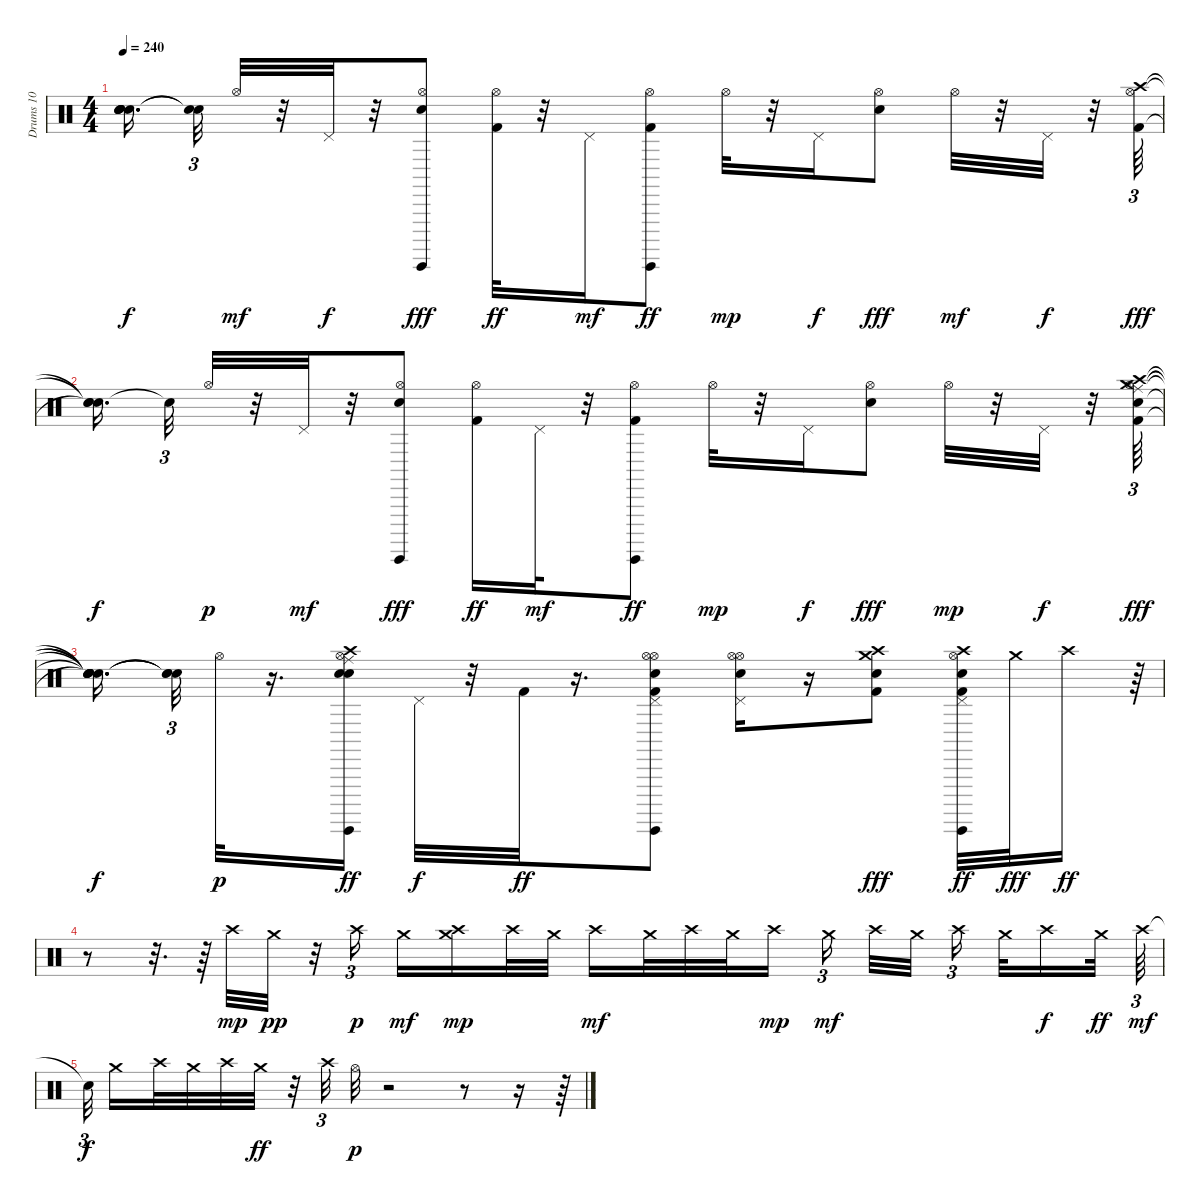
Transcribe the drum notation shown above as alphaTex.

\track ("Drums 10" "Drums 10") {instrument percussion}
\staff {score}
\articulation defaults
\ts (4 4)
\tempo 240
\clef neutral
\ks c
("Snare (hit)"{t} "Snare (hit)"{t} "Snare (hit)"{t} "Snare (hit)"{t} "Snare (hit)"{t}).16{d dy f beam splitsecondary} ("Snare (hit)"{t} "Snare (hit)"{t}).32{tu (3 2)} "Hi-Hat (open)".32{dy mf} r.32 "Pedal Hi-Hat (hit)".32{dy f} r.32 ("Hi-Hat (open)" "Guiro (hit)" "Snare (hit) 2").8{dy fff} ("Hi-Hat (open)" "Kick (hit) 2").32{dy ff} r.32 "Pedal Hi-Hat (hit)".16{dy mf} ("Hi-Hat (open)" "Guiro (hit)" "Kick (hit) 2").8{dy ff} "Hi-Hat (open)".32{dy mp} r.32 "Pedal Hi-Hat (hit)".16{dy f} ("Hi-Hat (open)" "Snare (hit) 2").8{dy fff} "Hi-Hat (open)".32{dy mf} r.32 "Pedal Hi-Hat (hit)".32{dy f} r.32 ("Hi-Hat (open)" "Kick (hit) 2" "Crash high (hit)").64{tu (3 2) dy fff} |
("Snare (hit)"{t} "Snare (hit)"{t} "Snare (hit)"{t}).16{d dy f beam splitsecondary} "Snare (hit)"{t}.32{tu (3 2)} "Hi-Hat (open)".32{dy p} r.32 "Pedal Hi-Hat (hit)".32{dy mf} r.32 ("Hi-Hat (open)" "Guiro (hit)" "Snare (hit) 2").8{dy fff} ("Hi-Hat (open)" "Kick (hit) 2").16{dy ff} "Pedal Hi-Hat (hit)".32{dy mf} r.32 ("Hi-Hat (open)" "Guiro (hit)" "Kick (hit) 2").8{dy ff} "Hi-Hat (open)".32{dy mp} r.32 "Pedal Hi-Hat (hit)".16{dy f} ("Hi-Hat (open)" "Snare (hit) 2").8{dy fff} "Hi-Hat (open)".32{dy mp} r.32 "Pedal Hi-Hat (hit)".32{dy f} r.32 ("Hi-Hat (open)" "Kick (hit) 2" "Electric Snare (hit)" "Ride (middle)" "Crash high (hit)" "Crash medium (hit)").64{tu (3 2) dy fff} |
("Snare (hit)"{t} "Snare (hit)"{t} "Snare (hit)"{t} "Snare (hit)"{t} "Snare (hit)"{t} "Snare (hit)"{t}).16{d dy f beam splitsecondary} ("Snare (hit)"{t} "Snare (hit)"{t} "Snare (hit)"{t}).32{tu (3 2)} "Hi-Hat (open)".32{dy p} r.16{d} ("Hi-Hat (open)" "Guiro (hit)" "Snare (hit) 2" "Electric Snare (hit)" "Ride (middle)" "Crash high (hit)").16{dy ff} "Pedal Hi-Hat (hit)".32{dy f} r.32 "Kick (hit) 2".32{dy ff} r.16{d} ("Pedal Hi-Hat (hit)" "Hi-Hat (open)" "Guiro (hit)" "Kick (hit) 2" "Electric Snare (hit)" "Hi-Hat (open)").8 ("Pedal Hi-Hat (hit)" "Hi-Hat (open)" "Electric Snare (hit)" "Hi-Hat (open)").16 r.16 ("Kick (hit) 2" "Snare (hit) 2" "Crash high (hit)" "Crash medium (hit)").8{dy fff} ("Pedal Hi-Hat (hit)" "Hi-Hat (open)" "Guiro (hit)" "Kick (hit) 2" "Crash high (hit)" "Electric Snare (hit)").32{dy ff} "Crash medium (hit)".32{dy fff} "Crash high (hit)".16{dy ff} r.64{tu (3 2)} |
r.8 r.32{d} r.64 "Crash high (hit)".32{dy mp} "Crash medium (hit)".32{dy pp} r.32 "Crash high (hit)".16{tu (3 2) dy p beam splitsecondary} "Crash medium (hit)".16{dy mf} ("Crash high (hit)" "Crash medium (hit)").16{dy mp} "Crash high (hit)".32 "Crash medium (hit)".32 "Crash high (hit)".16{dy mf} "Crash medium (hit)".32 "Crash high (hit)".32 "Crash medium (hit)".32 "Crash high (hit)".16{dy mp beam splitsecondary} "Crash medium (hit)".16{tu (3 2) dy mf} "Crash high (hit)".32 "Crash medium (hit)".32{beam splitsecondary} "Crash high (hit)".16{tu (3 2) beam splitsecondary} "Crash medium (hit)".32 "Crash high (hit)".16{dy f} "Crash medium (hit)".32{dy ff} "Crash high (hit)".64{tu (3 2) dy mf} |
"Snare (hit)"{t}.32{tu (3 2) dy f beam splitsecondary} "Crash medium (hit)".16 "Crash high (hit)".32 "Crash medium (hit)".32 "Crash high (hit)".32 "Crash medium (hit)".32{dy ff} r.32 "Crash high (hit)".32{tu (3 2)} "Hi-Hat (open)".32{dy p} r.2 r.8 r.16 r.64
